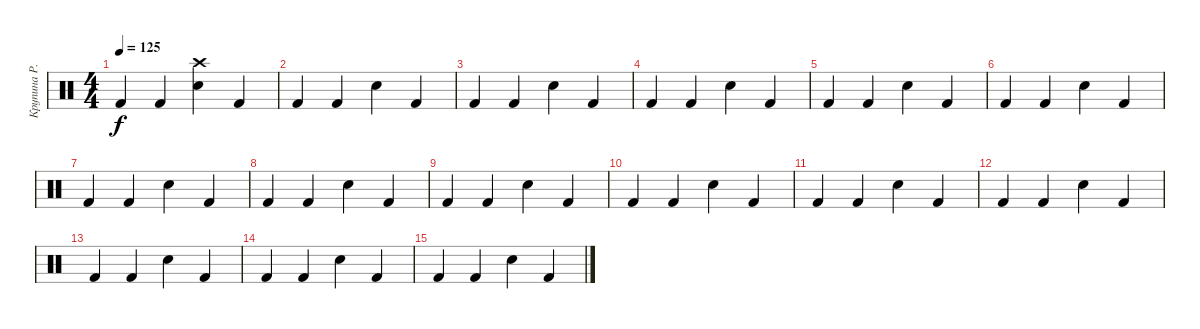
\track ("Крупина Р.В." "Крупина Р.") {instrument percussion}
\staff {score}
\articulation defaults
\ts (4 4)
\tempo 125
\clef neutral
\ks c "Kick (hit) 2".4{dy f} "Kick (hit) 2".4
("Crash high (hit)" "Snare (hit) 2").4 "Kick (hit) 2".4 |
"Kick (hit) 2".4 "Kick (hit) 2".4 "Snare (hit) 2".4 "Kick (hit) 2".4 |
"Kick (hit) 2".4 "Kick (hit) 2".4 "Snare (hit) 2".4 "Kick (hit) 2".4 |
"Kick (hit) 2".4 "Kick (hit) 2".4 "Snare (hit) 2".4 "Kick (hit) 2".4 |
"Kick (hit) 2".4 "Kick (hit) 2".4 "Snare (hit) 2".4 "Kick (hit) 2".4 |
"Kick (hit) 2".4 "Kick (hit) 2".4 "Snare (hit) 2".4 "Kick (hit) 2".4 |
"Kick (hit) 2".4 "Kick (hit) 2".4 "Snare (hit) 2".4 "Kick (hit) 2".4 |
"Kick (hit) 2".4 "Kick (hit) 2".4 "Snare (hit) 2".4 "Kick (hit) 2".4 |
"Kick (hit) 2".4 "Kick (hit) 2".4 "Snare (hit) 2".4 "Kick (hit) 2".4 |
"Kick (hit) 2".4 "Kick (hit) 2".4 "Snare (hit) 2".4 "Kick (hit) 2".4 |
"Kick (hit) 2".4 "Kick (hit) 2".4 "Snare (hit) 2".4 "Kick (hit) 2".4 |
"Kick (hit) 2".4 "Kick (hit) 2".4 "Snare (hit) 2".4 "Kick (hit) 2".4 |
"Kick (hit) 2".4 "Kick (hit) 2".4 "Snare (hit) 2".4 "Kick (hit) 2".4 |
"Kick (hit) 2".4 "Kick (hit) 2".4 "Snare (hit) 2".4 "Kick (hit) 2".4 |
"Kick (hit) 2".4 "Kick (hit) 2".4 "Snare (hit) 2".4 "Kick (hit) 2".4
